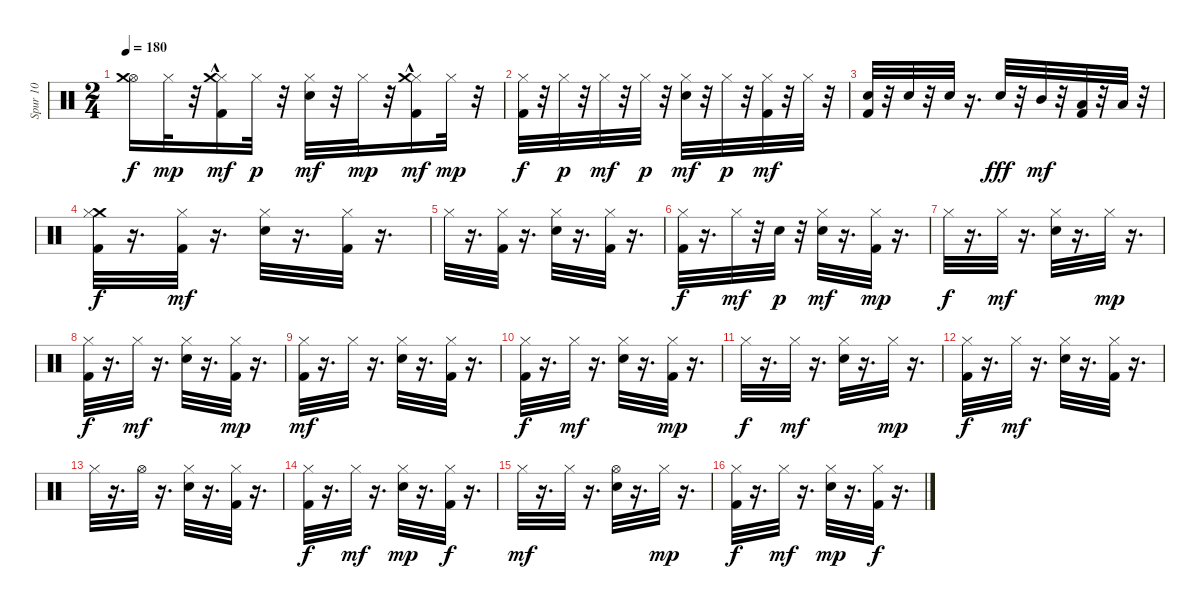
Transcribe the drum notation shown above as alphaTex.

\track ("Spur 10" "Spur 10") {instrument percussion}
\staff {score}
\articulation defaults
\ts (2 4)
\tempo 180
\clef neutral
\ks c
("Hi-Hat (open)" "Crash medium (hit)").16{dy f} "Hi-Hat (closed)".32{dy mp} r.32 ("Hi-Hat (closed)" "Crash medium (hit)"{hac} "Kick (hit) 2").16{dy mf} "Hi-Hat (closed)".32{dy p} r.32 ("Electric Snare (hit)" "Hi-Hat (closed)").32{dy mf} r.32 "Hi-Hat (closed)".32{dy mp} r.32 ("Hi-Hat (closed)" "Crash medium (hit)"{hac} "Kick (hit) 2").16{dy mf} "Hi-Hat (closed)".32{dy mp} r.32 |
("Hi-Hat (closed)" "Kick (hit) 2").32{dy f} r.32 "Hi-Hat (closed)".32{dy p} r.32 "Hi-Hat (closed)".32{dy mf} r.32 "Hi-Hat (closed)".32{dy p} r.32 ("Electric Snare (hit)" "Hi-Hat (closed)").32{dy mf} r.32 "Hi-Hat (closed)".32{dy p} r.32 ("Hi-Hat (closed)" "Kick (hit) 2").32{dy mf} r.32 "Hi-Hat (closed)".32 r.32 |
("Electric Snare (hit)" "Kick (hit) 2").32 r.32 "Electric Snare (hit)".32 r.32 "Electric Snare (hit)".32 r.16{d} "Electric Snare (hit)".32{dy fff} r.32 "Mid Tom (hit)".32{dy mf} r.32 ("Low Tom (hit)" "Kick (hit) 2").32 r.32 "Low Floor Tom (hit)".32 r.32 |
("Crash medium (hit)" "Hi-Hat (closed)" "Kick (hit) 2").32{dy f} r.16{d} ("Hi-Hat (closed)" "Kick (hit) 2").32{dy mf} r.16{d} ("Electric Snare (hit)" "Hi-Hat (closed)").32 r.16{d} ("Hi-Hat (closed)" "Kick (hit) 2").32 r.16{d} |
"Hi-Hat (closed)".32 r.16{d} ("Hi-Hat (closed)" "Kick (hit) 2").32 r.16{d} ("Electric Snare (hit)" "Hi-Hat (closed)").32 r.16{d} ("Hi-Hat (closed)" "Kick (hit) 2").32 r.16{d} |
("Hi-Hat (closed)" "Kick (hit) 2").32{dy f} r.16{d} "Hi-Hat (closed)".32{dy mf} r.32 "Electric Snare (hit)".32{dy p} r.32 ("Electric Snare (hit)" "Hi-Hat (closed)").32{dy mf} r.16{d} ("Hi-Hat (closed)" "Kick (hit) 2").32{dy mp} r.16{d} |
"Hi-Hat (closed)".32{dy f} r.16{d} "Hi-Hat (closed)".32{dy mf} r.16{d} ("Electric Snare (hit)" "Hi-Hat (closed)").32 r.16{d} "Hi-Hat (closed)".32{dy mp} r.16{d} |
("Hi-Hat (closed)" "Kick (hit) 2").32{dy f} r.16{d} "Hi-Hat (closed)".32{dy mf} r.16{d} ("Electric Snare (hit)" "Hi-Hat (closed)").32 r.16{d} ("Hi-Hat (closed)" "Kick (hit) 2").32{dy mp} r.16{d} |
("Hi-Hat (closed)" "Kick (hit) 2").32{dy mf} r.16{d} "Hi-Hat (closed)".32 r.16{d} ("Electric Snare (hit)" "Hi-Hat (closed)").32 r.16{d} ("Hi-Hat (closed)" "Kick (hit) 2").32 r.16{d} |
("Hi-Hat (closed)" "Kick (hit) 2").32{dy f} r.16{d} "Hi-Hat (closed)".32{dy mf} r.16{d} ("Electric Snare (hit)" "Hi-Hat (closed)").32 r.16{d} ("Hi-Hat (closed)" "Kick (hit) 2").32{dy mp} r.16{d} |
"Hi-Hat (closed)".32{dy f} r.16{d} "Hi-Hat (closed)".32{dy mf} r.16{d} ("Electric Snare (hit)" "Hi-Hat (closed)").32 r.16{d} "Hi-Hat (closed)".32{dy mp} r.16{d} |
("Hi-Hat (closed)" "Kick (hit) 2").32{dy f} r.16{d} "Hi-Hat (closed)".32{dy mf} r.16{d} ("Electric Snare (hit)" "Hi-Hat (closed)").32 r.16{d} ("Hi-Hat (closed)" "Kick (hit) 2").32 r.16{d} |
"Hi-Hat (closed)".32 r.16{d} "Hi-Hat (open)".32 r.16{d} ("Electric Snare (hit)" "Hi-Hat (closed)").32 r.16{d} ("Hi-Hat (closed)" "Kick (hit) 2").32 r.16{d} |
("Hi-Hat (closed)" "Kick (hit) 2").32{dy f} r.16{d} "Hi-Hat (closed)".32{dy mf} r.16{d} ("Electric Snare (hit)" "Hi-Hat (closed)").32{dy mp} r.16{d} ("Hi-Hat (closed)" "Kick (hit) 2").32{dy f} r.16{d} |
"Hi-Hat (closed)".32{dy mf} r.16{d} "Hi-Hat (closed)".32 r.16{d} ("Electric Snare (hit)" "Hi-Hat (open)").32 r.16{d} "Hi-Hat (closed)".32{dy mp} r.16{d} |
("Hi-Hat (closed)" "Kick (hit) 2").32{dy f} r.16{d} "Hi-Hat (closed)".32{dy mf} r.16{d} ("Electric Snare (hit)" "Hi-Hat (closed)").32{dy mp} r.16{d} ("Hi-Hat (closed)" "Kick (hit) 2").32{dy f} r.16{d}
